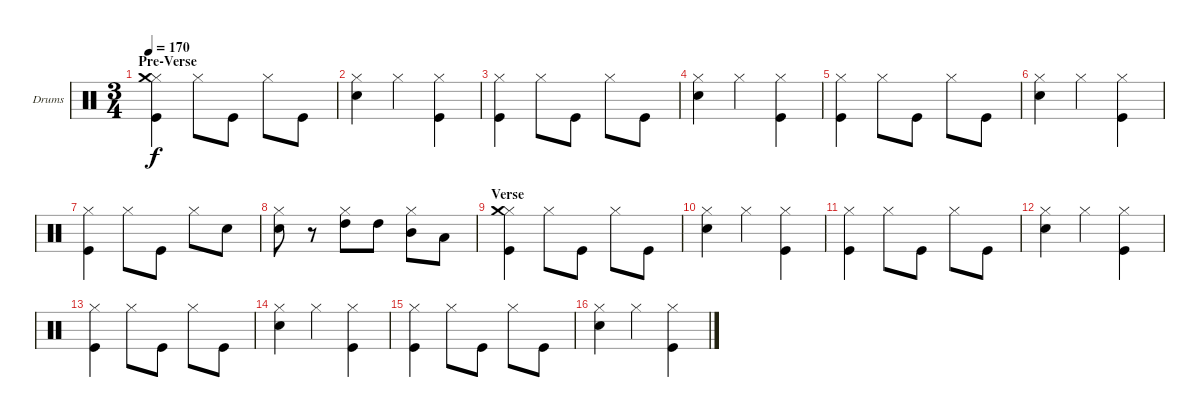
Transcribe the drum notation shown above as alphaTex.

\defaultSystemsLayout 4
\bracketExtendMode groupsimilarinstruments
\firstSystemTrackNameOrientation horizontal
\otherSystemsTrackNameOrientation horizontal
\track ("Drums" "Drums") {instrument percussion}
\staff {score}
\articulation defaults
\ts (3 4)
\section ("" "Pre-Verse")
\tempo 170
\clef neutral
\ks c
("Kick (hit)" "Hi-Hat (closed)" "Crash medium (hit)").4{dy f} "Hi-Hat (closed)".8 "Kick (hit)".8 "Hi-Hat (closed)".8 "Kick (hit)".8 |
("Snare (hit) 2" "Hi-Hat (closed)").4 "Hi-Hat (closed)".4 ("Kick (hit)" "Hi-Hat (closed)").4 |
("Kick (hit)" "Hi-Hat (closed)").4 "Hi-Hat (closed)".8 "Kick (hit)".8 "Hi-Hat (closed)".8 "Kick (hit)".8 |
("Snare (hit) 2" "Hi-Hat (closed)").4 "Hi-Hat (closed)".4 ("Kick (hit)" "Hi-Hat (closed)").4 |
("Kick (hit)" "Hi-Hat (closed)").4 "Hi-Hat (closed)".8 "Kick (hit)".8 "Hi-Hat (closed)".8 "Kick (hit)".8 |
("Snare (hit) 2" "Hi-Hat (closed)").4 "Hi-Hat (closed)".4 ("Kick (hit)" "Hi-Hat (closed)").4 |
("Kick (hit)" "Hi-Hat (closed)").4 "Hi-Hat (closed)".8 "Kick (hit)".8 "Hi-Hat (closed)".8 "Snare (hit) 2".8 |
("Snare (hit) 2" "Hi-Hat (closed)").8 r.8 ("High Tom (hit)" "Hi-Hat (closed)").8 "High Tom (hit)".8 ("Mid Tom (hit)" "Hi-Hat (closed)").8 "Low Tom (hit)".8 |
\section ("" "Verse")
("Kick (hit)" "Hi-Hat (closed)" "Crash medium (hit)").4 "Hi-Hat (closed)".8 "Kick (hit)".8 "Hi-Hat (closed)".8 "Kick (hit)".8 |
("Snare (hit) 2" "Hi-Hat (closed)").4 "Hi-Hat (closed)".4 ("Kick (hit)" "Hi-Hat (closed)").4 |
("Kick (hit)" "Hi-Hat (closed)").4 "Hi-Hat (closed)".8 "Kick (hit)".8 "Hi-Hat (closed)".8 "Kick (hit)".8 |
("Snare (hit) 2" "Hi-Hat (closed)").4 "Hi-Hat (closed)".4 ("Kick (hit)" "Hi-Hat (closed)").4 |
("Kick (hit)" "Hi-Hat (closed)").4 "Hi-Hat (closed)".8 "Kick (hit)".8 "Hi-Hat (closed)".8 "Kick (hit)".8 |
("Snare (hit) 2" "Hi-Hat (closed)").4 "Hi-Hat (closed)".4 ("Kick (hit)" "Hi-Hat (closed)").4 |
("Kick (hit)" "Hi-Hat (closed)").4 "Hi-Hat (closed)".8 "Kick (hit)".8 "Hi-Hat (closed)".8 "Kick (hit)".8 |
("Snare (hit) 2" "Hi-Hat (closed)").4 "Hi-Hat (closed)".4 ("Kick (hit)" "Hi-Hat (closed)").4
